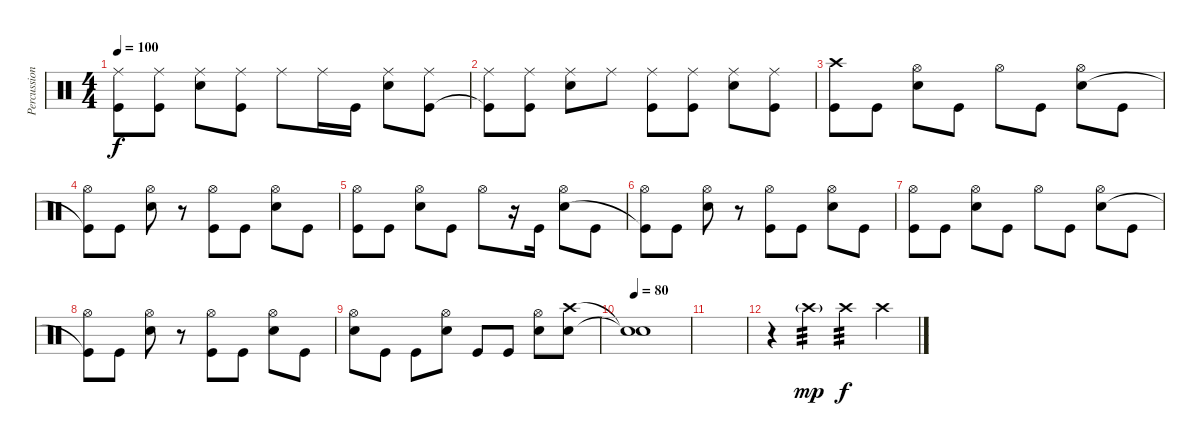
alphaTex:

\track ("Percussion" "Percussion") {instrument percussion}
\staff {score}
\articulation defaults
\ts (4 4)
\tempo 100
\clef neutral
\ks c
("Ride (middle)" "Kick (hit)").8{dy f} ("Ride (middle)" "Kick (hit)").8 ("Ride (middle)" "Electric Snare (hit)").8 ("Ride (middle)" "Kick (hit)").8 "Ride (middle)".8 "Ride (middle)".16 "Kick (hit)".16 ("Ride (middle)" "Electric Snare (hit)").8 ("Ride (middle)" "Kick (hit)").8 |
("Ride (middle)" "Kick (hit)"{t}).8 ("Ride (middle)" "Kick (hit)").8 ("Ride (middle)" "Electric Snare (hit)").8 "Ride (middle)".8 ("Ride (middle)" "Kick (hit)").8 ("Ride (middle)" "Kick (hit)").8 ("Ride (middle)" "Electric Snare (hit)").8 ("Ride (middle)" "Kick (hit)").8 |
("Crash high (hit)" "Kick (hit)").8 "Kick (hit)".8 ("Hi-Hat (open)" "Electric Snare (hit)").8 "Kick (hit)".8 "Hi-Hat (open)".8 "Kick (hit)".8 ("Hi-Hat (open)" "Electric Snare (hit)").8 "Kick (hit)".8 |
("Hi-Hat (open)" "Kick (hit)"{t}).8 "Kick (hit)".8 ("Hi-Hat (open)" "Electric Snare (hit)").8 r.8 ("Hi-Hat (open)" "Kick (hit)").8 "Kick (hit)".8 ("Hi-Hat (open)" "Electric Snare (hit)").8 "Kick (hit)".8 |
("Hi-Hat (open)" "Kick (hit)").8 "Kick (hit)".8 ("Hi-Hat (open)" "Electric Snare (hit)").8 "Kick (hit)".8 "Hi-Hat (open)".8 r.16 "Kick (hit)".16 ("Hi-Hat (open)" "Electric Snare (hit)").8 "Kick (hit)".8 |
("Hi-Hat (open)" "Kick (hit)"{t}).8 "Kick (hit)".8 ("Hi-Hat (open)" "Electric Snare (hit)").8 r.8 ("Hi-Hat (open)" "Kick (hit)").8 "Kick (hit)".8 ("Hi-Hat (open)" "Electric Snare (hit)").8 "Kick (hit)".8 |
("Hi-Hat (open)" "Kick (hit)").8 "Kick (hit)".8 ("Hi-Hat (open)" "Electric Snare (hit)").8 "Kick (hit)".8 "Hi-Hat (open)".8 "Kick (hit)".8 ("Hi-Hat (open)" "Electric Snare (hit)").8 "Kick (hit)".8 |
("Hi-Hat (open)" "Kick (hit)"{t}).8 "Kick (hit)".8 ("Hi-Hat (open)" "Electric Snare (hit)").8 r.8 ("Hi-Hat (open)" "Kick (hit)").8 "Kick (hit)".8 ("Hi-Hat (open)" "Electric Snare (hit)").8 "Kick (hit)".8 |
("Hi-Hat (open)" "Electric Snare (hit)").8 "Kick (hit)".8 "Kick (hit)".8 ("Hi-Hat (open)" "Electric Snare (hit)").8 "Kick (hit)".8 "Kick (hit)".8 ("Hi-Hat (open)" "Electric Snare (hit)").8 ("Crash high (hit)" "Electric Snare (hit)").8 |
\tempo 80
("Snare (hit)"{t} "Snare (hit)"{t}).1 |
|
r.4 "Crash high (hit)"{g}.4{tp 3 dy mp} "Crash high (hit)".4{tp 3 dy f} "Crash high (hit)".4
